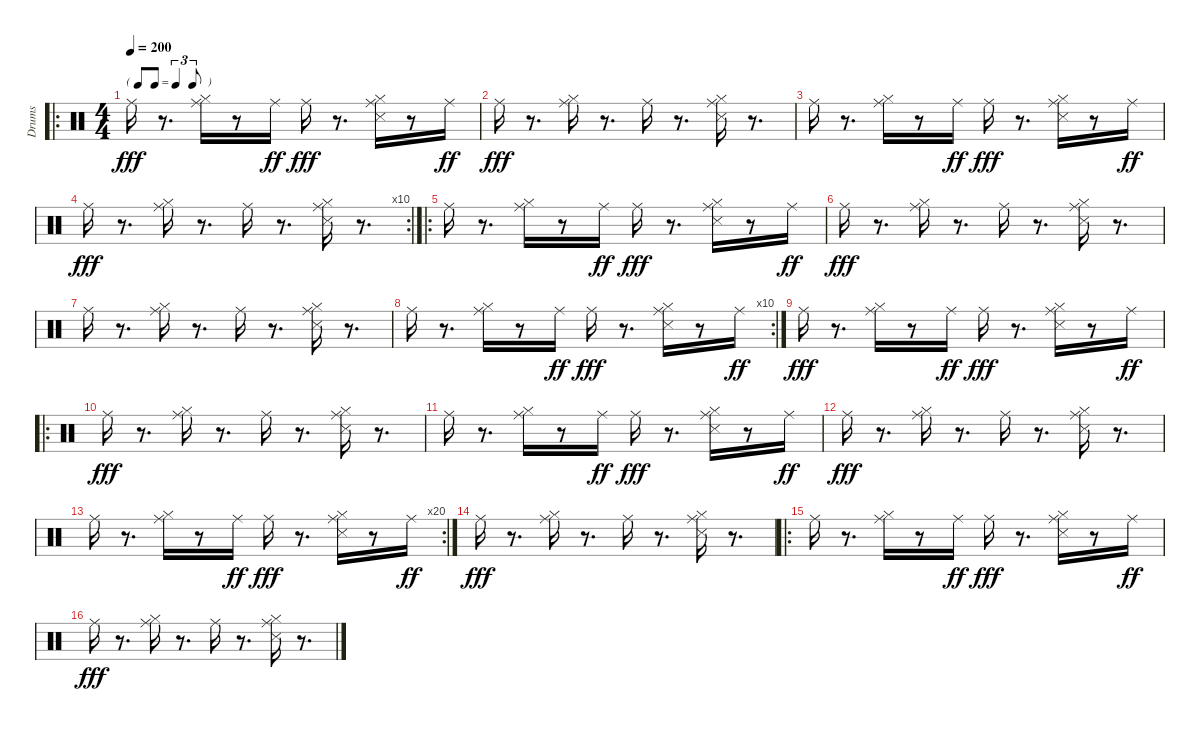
\track ("Drums                                   " "Drums     ") {instrument percussion}
\staff {score}
\articulation defaults
\ro
\ts (4 4)
\tf triplet8th
\tempo 200
\clef neutral
\ks c "Ride (middle)".16{dy fff}
r.8{d} ("Hi-Hat (closed)" "Ride (middle)").16 r.8 "Ride (middle)".16{dy ff} "Ride (middle)".16{dy fff} r.8{d} ("Hi-Hat (closed)" "Snare (side stick) 3" "Ride (middle)").16 r.8 "Ride (middle)".16{dy ff} |
"Ride (middle)".16{dy fff} r.8{d} ("Hi-Hat (closed)" "Ride (middle)").16 r.8{d} "Ride (middle)".16 r.8{d} ("Hi-Hat (closed)" "Snare (side stick) 3" "Ride (middle)").16 r.8{d} |
"Ride (middle)".16 r.8{d} ("Hi-Hat (closed)" "Ride (middle)").16 r.8 "Ride (middle)".16{dy ff} "Ride (middle)".16{dy fff} r.8{d} ("Hi-Hat (closed)" "Snare (side stick) 3" "Ride (middle)").16 r.8 "Ride (middle)".16{dy ff} |
\rc 10 "Ride (middle)".16{dy fff}
r.8{d} ("Hi-Hat (closed)" "Ride (middle)").16 r.8{d} "Ride (middle)".16 r.8{d} ("Hi-Hat (closed)" "Snare (side stick) 3" "Ride (middle)").16 r.8{d} |
\ro "Ride (middle)".16
r.8{d} ("Hi-Hat (closed)" "Ride (middle)").16 r.8 "Ride (middle)".16{dy ff} "Ride (middle)".16{dy fff} r.8{d} ("Hi-Hat (closed)" "Snare (side stick) 3" "Ride (middle)").16 r.8 "Ride (middle)".16{dy ff} |
"Ride (middle)".16{dy fff} r.8{d} ("Hi-Hat (closed)" "Ride (middle)").16 r.8{d} "Ride (middle)".16 r.8{d} ("Hi-Hat (closed)" "Snare (side stick) 3" "Ride (middle)").16 r.8{d} |
"Ride (middle)".16 r.8{d} ("Hi-Hat (closed)" "Ride (middle)").16 r.8{d} "Ride (middle)".16 r.8{d} ("Hi-Hat (closed)" "Snare (side stick) 3" "Ride (middle)").16 r.8{d} |
\rc 10 "Ride (middle)".16
r.8{d} ("Hi-Hat (closed)" "Ride (middle)").16 r.8 "Ride (middle)".16{dy ff} "Ride (middle)".16{dy fff} r.8{d} ("Hi-Hat (closed)" "Snare (side stick) 3" "Ride (middle)").16 r.8 "Ride (middle)".16{dy ff} |
"Ride (middle)".16{dy fff} r.8{d} ("Hi-Hat (closed)" "Ride (middle)").16 r.8 "Ride (middle)".16{dy ff} "Ride (middle)".16{dy fff} r.8{d} ("Hi-Hat (closed)" "Snare (side stick) 3" "Ride (middle)").16 r.8 "Ride (middle)".16{dy ff} |
\ro "Ride (middle)".16{dy fff}
r.8{d} ("Hi-Hat (closed)" "Ride (middle)").16 r.8{d} "Ride (middle)".16 r.8{d} ("Hi-Hat (closed)" "Snare (side stick) 3" "Ride (middle)").16 r.8{d} |
"Ride (middle)".16 r.8{d} ("Hi-Hat (closed)" "Ride (middle)").16 r.8 "Ride (middle)".16{dy ff} "Ride (middle)".16{dy fff} r.8{d} ("Hi-Hat (closed)" "Snare (side stick) 3" "Ride (middle)").16 r.8 "Ride (middle)".16{dy ff} |
"Ride (middle)".16{dy fff} r.8{d} ("Hi-Hat (closed)" "Ride (middle)").16 r.8{d} "Ride (middle)".16 r.8{d} ("Hi-Hat (closed)" "Snare (side stick) 3" "Ride (middle)").16 r.8{d} |
\rc 20 "Ride (middle)".16
r.8{d} ("Hi-Hat (closed)" "Ride (middle)").16 r.8 "Ride (middle)".16{dy ff} "Ride (middle)".16{dy fff} r.8{d} ("Hi-Hat (closed)" "Snare (side stick) 3" "Ride (middle)").16 r.8 "Ride (middle)".16{dy ff} |
"Ride (middle)".16{dy fff} r.8{d} ("Hi-Hat (closed)" "Ride (middle)").16 r.8{d} "Ride (middle)".16 r.8{d} ("Hi-Hat (closed)" "Snare (side stick) 3" "Ride (middle)").16 r.8{d} |
\ro "Ride (middle)".16
r.8{d} ("Hi-Hat (closed)" "Ride (middle)").16 r.8 "Ride (middle)".16{dy ff} "Ride (middle)".16{dy fff} r.8{d} ("Hi-Hat (closed)" "Snare (side stick) 3" "Ride (middle)").16 r.8 "Ride (middle)".16{dy ff} |
"Ride (middle)".16{dy fff} r.8{d} ("Hi-Hat (closed)" "Ride (middle)").16 r.8{d} "Ride (middle)".16 r.8{d} ("Hi-Hat (closed)" "Snare (side stick) 3" "Ride (middle)").16 r.8{d}
